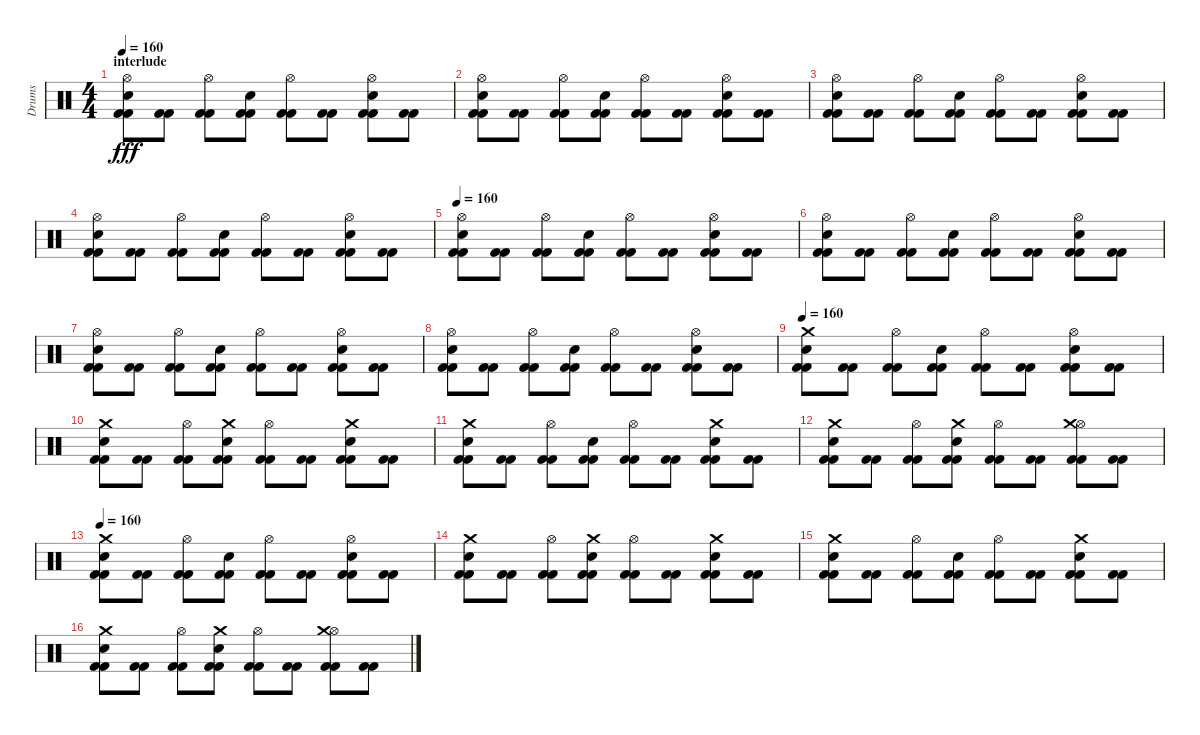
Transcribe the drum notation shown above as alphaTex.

\track ("Drums" "Drums") {instrument percussion}
\staff {score}
\articulation defaults
\ts (4 4)
\section ("" "interlude")
\tempo 160
\clef neutral
\ks c
("Hi-Hat (open)" "Electric Snare (hit)" "Kick (hit) 2" "Kick (hit) 2").8{dy fff} ("Kick (hit) 2" "Kick (hit) 2").8 ("Hi-Hat (open)" "Kick (hit) 2" "Kick (hit) 2").8 ("Electric Snare (hit)" "Kick (hit) 2" "Kick (hit) 2").8 ("Hi-Hat (open)" "Kick (hit) 2" "Kick (hit) 2").8 ("Kick (hit) 2" "Kick (hit) 2").8 ("Hi-Hat (open)" "Electric Snare (hit)" "Kick (hit) 2" "Kick (hit) 2").8 ("Kick (hit) 2" "Kick (hit) 2").8 |
("Hi-Hat (open)" "Electric Snare (hit)" "Kick (hit) 2" "Kick (hit) 2").8 ("Kick (hit) 2" "Kick (hit) 2").8 ("Hi-Hat (open)" "Kick (hit) 2" "Kick (hit) 2").8 ("Electric Snare (hit)" "Kick (hit) 2" "Kick (hit) 2").8 ("Hi-Hat (open)" "Kick (hit) 2" "Kick (hit) 2").8 ("Kick (hit) 2" "Kick (hit) 2").8 ("Hi-Hat (open)" "Electric Snare (hit)" "Kick (hit) 2" "Kick (hit) 2").8 ("Kick (hit) 2" "Kick (hit) 2").8 |
("Hi-Hat (open)" "Electric Snare (hit)" "Kick (hit) 2" "Kick (hit) 2").8 ("Kick (hit) 2" "Kick (hit) 2").8 ("Hi-Hat (open)" "Kick (hit) 2" "Kick (hit) 2").8 ("Electric Snare (hit)" "Kick (hit) 2" "Kick (hit) 2").8 ("Hi-Hat (open)" "Kick (hit) 2" "Kick (hit) 2").8 ("Kick (hit) 2" "Kick (hit) 2").8 ("Hi-Hat (open)" "Electric Snare (hit)" "Kick (hit) 2" "Kick (hit) 2").8 ("Kick (hit) 2" "Kick (hit) 2").8 |
("Hi-Hat (open)" "Electric Snare (hit)" "Kick (hit) 2" "Kick (hit) 2").8 ("Kick (hit) 2" "Kick (hit) 2").8 ("Hi-Hat (open)" "Kick (hit) 2" "Kick (hit) 2").8 ("Electric Snare (hit)" "Kick (hit) 2" "Kick (hit) 2").8 ("Hi-Hat (open)" "Kick (hit) 2" "Kick (hit) 2").8 ("Kick (hit) 2" "Kick (hit) 2").8 ("Hi-Hat (open)" "Electric Snare (hit)" "Kick (hit) 2" "Kick (hit) 2").8 ("Kick (hit) 2" "Kick (hit) 2").8 |
\tempo 160
("Hi-Hat (open)" "Electric Snare (hit)" "Kick (hit) 2" "Kick (hit) 2").8 ("Kick (hit) 2" "Kick (hit) 2").8 ("Hi-Hat (open)" "Kick (hit) 2" "Kick (hit) 2").8 ("Electric Snare (hit)" "Kick (hit) 2" "Kick (hit) 2").8 ("Hi-Hat (open)" "Kick (hit) 2" "Kick (hit) 2").8 ("Kick (hit) 2" "Kick (hit) 2").8 ("Hi-Hat (open)" "Electric Snare (hit)" "Kick (hit) 2" "Kick (hit) 2").8 ("Kick (hit) 2" "Kick (hit) 2").8 |
("Hi-Hat (open)" "Electric Snare (hit)" "Kick (hit) 2" "Kick (hit) 2").8 ("Kick (hit) 2" "Kick (hit) 2").8 ("Hi-Hat (open)" "Kick (hit) 2" "Kick (hit) 2").8 ("Electric Snare (hit)" "Kick (hit) 2" "Kick (hit) 2").8 ("Hi-Hat (open)" "Kick (hit) 2" "Kick (hit) 2").8 ("Kick (hit) 2" "Kick (hit) 2").8 ("Hi-Hat (open)" "Electric Snare (hit)" "Kick (hit) 2" "Kick (hit) 2").8 ("Kick (hit) 2" "Kick (hit) 2").8 |
("Hi-Hat (open)" "Electric Snare (hit)" "Kick (hit) 2" "Kick (hit) 2").8 ("Kick (hit) 2" "Kick (hit) 2").8 ("Hi-Hat (open)" "Kick (hit) 2" "Kick (hit) 2").8 ("Electric Snare (hit)" "Kick (hit) 2" "Kick (hit) 2").8 ("Hi-Hat (open)" "Kick (hit) 2" "Kick (hit) 2").8 ("Kick (hit) 2" "Kick (hit) 2").8 ("Hi-Hat (open)" "Electric Snare (hit)" "Kick (hit) 2" "Kick (hit) 2").8 ("Kick (hit) 2" "Kick (hit) 2").8 |
("Hi-Hat (open)" "Electric Snare (hit)" "Kick (hit) 2" "Kick (hit) 2").8 ("Kick (hit) 2" "Kick (hit) 2").8 ("Hi-Hat (open)" "Kick (hit) 2" "Kick (hit) 2").8 ("Electric Snare (hit)" "Kick (hit) 2" "Kick (hit) 2").8 ("Hi-Hat (open)" "Kick (hit) 2" "Kick (hit) 2").8 ("Kick (hit) 2" "Kick (hit) 2").8 ("Hi-Hat (open)" "Electric Snare (hit)" "Kick (hit) 2" "Kick (hit) 2").8 ("Kick (hit) 2" "Kick (hit) 2").8 |
\tempo 160
("Electric Snare (hit)" "Crash medium (hit)" "Kick (hit) 2" "Kick (hit) 2").8 ("Kick (hit) 2" "Kick (hit) 2").8 ("Hi-Hat (open)" "Kick (hit) 2" "Kick (hit) 2").8 ("Electric Snare (hit)" "Kick (hit) 2" "Kick (hit) 2").8 ("Hi-Hat (open)" "Kick (hit) 2" "Kick (hit) 2").8 ("Kick (hit) 2" "Kick (hit) 2").8 ("Hi-Hat (open)" "Electric Snare (hit)" "Kick (hit) 2" "Kick (hit) 2").8 ("Kick (hit) 2" "Kick (hit) 2").8 |
("Electric Snare (hit)" "Crash medium (hit)" "Kick (hit) 2" "Kick (hit) 2").8 ("Kick (hit) 2" "Kick (hit) 2").8 ("Hi-Hat (open)" "Kick (hit) 2" "Kick (hit) 2").8 ("Electric Snare (hit)" "Crash medium (hit)" "Kick (hit) 2" "Kick (hit) 2").8 ("Hi-Hat (open)" "Kick (hit) 2" "Kick (hit) 2").8 ("Kick (hit) 2" "Kick (hit) 2").8 ("Electric Snare (hit)" "Crash medium (hit)" "Kick (hit) 2" "Kick (hit) 2").8 ("Kick (hit) 2" "Kick (hit) 2").8 |
("Electric Snare (hit)" "Crash medium (hit)" "Kick (hit) 2" "Kick (hit) 2").8 ("Kick (hit) 2" "Kick (hit) 2").8 ("Hi-Hat (open)" "Kick (hit) 2" "Kick (hit) 2").8 ("Electric Snare (hit)" "Kick (hit) 2" "Kick (hit) 2").8 ("Hi-Hat (open)" "Kick (hit) 2" "Kick (hit) 2").8 ("Kick (hit) 2" "Kick (hit) 2").8 ("Electric Snare (hit)" "Crash medium (hit)" "Kick (hit) 2" "Kick (hit) 2").8 ("Kick (hit) 2" "Kick (hit) 2").8 |
("Electric Snare (hit)" "Crash medium (hit)" "Kick (hit) 2" "Kick (hit) 2").8 ("Kick (hit) 2" "Kick (hit) 2").8 ("Hi-Hat (open)" "Kick (hit) 2" "Kick (hit) 2").8 ("Electric Snare (hit)" "Crash medium (hit)" "Kick (hit) 2" "Kick (hit) 2").8 ("Hi-Hat (open)" "Kick (hit) 2" "Kick (hit) 2").8 ("Kick (hit) 2" "Kick (hit) 2").8 ("Hi-Hat (open)" "Crash medium (hit)" "Kick (hit) 2" "Kick (hit) 2").8 ("Kick (hit) 2" "Kick (hit) 2").8 |
\tempo 160
("Electric Snare (hit)" "Crash medium (hit)" "Kick (hit) 2" "Kick (hit) 2").8 ("Kick (hit) 2" "Kick (hit) 2").8 ("Hi-Hat (open)" "Kick (hit) 2" "Kick (hit) 2").8 ("Electric Snare (hit)" "Kick (hit) 2" "Kick (hit) 2").8 ("Hi-Hat (open)" "Kick (hit) 2" "Kick (hit) 2").8 ("Kick (hit) 2" "Kick (hit) 2").8 ("Hi-Hat (open)" "Electric Snare (hit)" "Kick (hit) 2" "Kick (hit) 2").8 ("Kick (hit) 2" "Kick (hit) 2").8 |
("Electric Snare (hit)" "Crash medium (hit)" "Kick (hit) 2" "Kick (hit) 2").8 ("Kick (hit) 2" "Kick (hit) 2").8 ("Hi-Hat (open)" "Kick (hit) 2" "Kick (hit) 2").8 ("Electric Snare (hit)" "Crash medium (hit)" "Kick (hit) 2" "Kick (hit) 2").8 ("Hi-Hat (open)" "Kick (hit) 2" "Kick (hit) 2").8 ("Kick (hit) 2" "Kick (hit) 2").8 ("Electric Snare (hit)" "Crash medium (hit)" "Kick (hit) 2" "Kick (hit) 2").8 ("Kick (hit) 2" "Kick (hit) 2").8 |
("Electric Snare (hit)" "Crash medium (hit)" "Kick (hit) 2" "Kick (hit) 2").8 ("Kick (hit) 2" "Kick (hit) 2").8 ("Hi-Hat (open)" "Kick (hit) 2" "Kick (hit) 2").8 ("Electric Snare (hit)" "Kick (hit) 2" "Kick (hit) 2").8 ("Hi-Hat (open)" "Kick (hit) 2" "Kick (hit) 2").8 ("Kick (hit) 2" "Kick (hit) 2").8 ("Electric Snare (hit)" "Crash medium (hit)" "Kick (hit) 2" "Kick (hit) 2").8 ("Kick (hit) 2" "Kick (hit) 2").8 |
("Electric Snare (hit)" "Crash medium (hit)" "Kick (hit) 2" "Kick (hit) 2").8 ("Kick (hit) 2" "Kick (hit) 2").8 ("Hi-Hat (open)" "Kick (hit) 2" "Kick (hit) 2").8 ("Electric Snare (hit)" "Crash medium (hit)" "Kick (hit) 2" "Kick (hit) 2").8 ("Hi-Hat (open)" "Kick (hit) 2" "Kick (hit) 2").8 ("Kick (hit) 2" "Kick (hit) 2").8 ("Hi-Hat (open)" "Crash medium (hit)" "Kick (hit) 2" "Kick (hit) 2").8 ("Kick (hit) 2" "Kick (hit) 2").8
